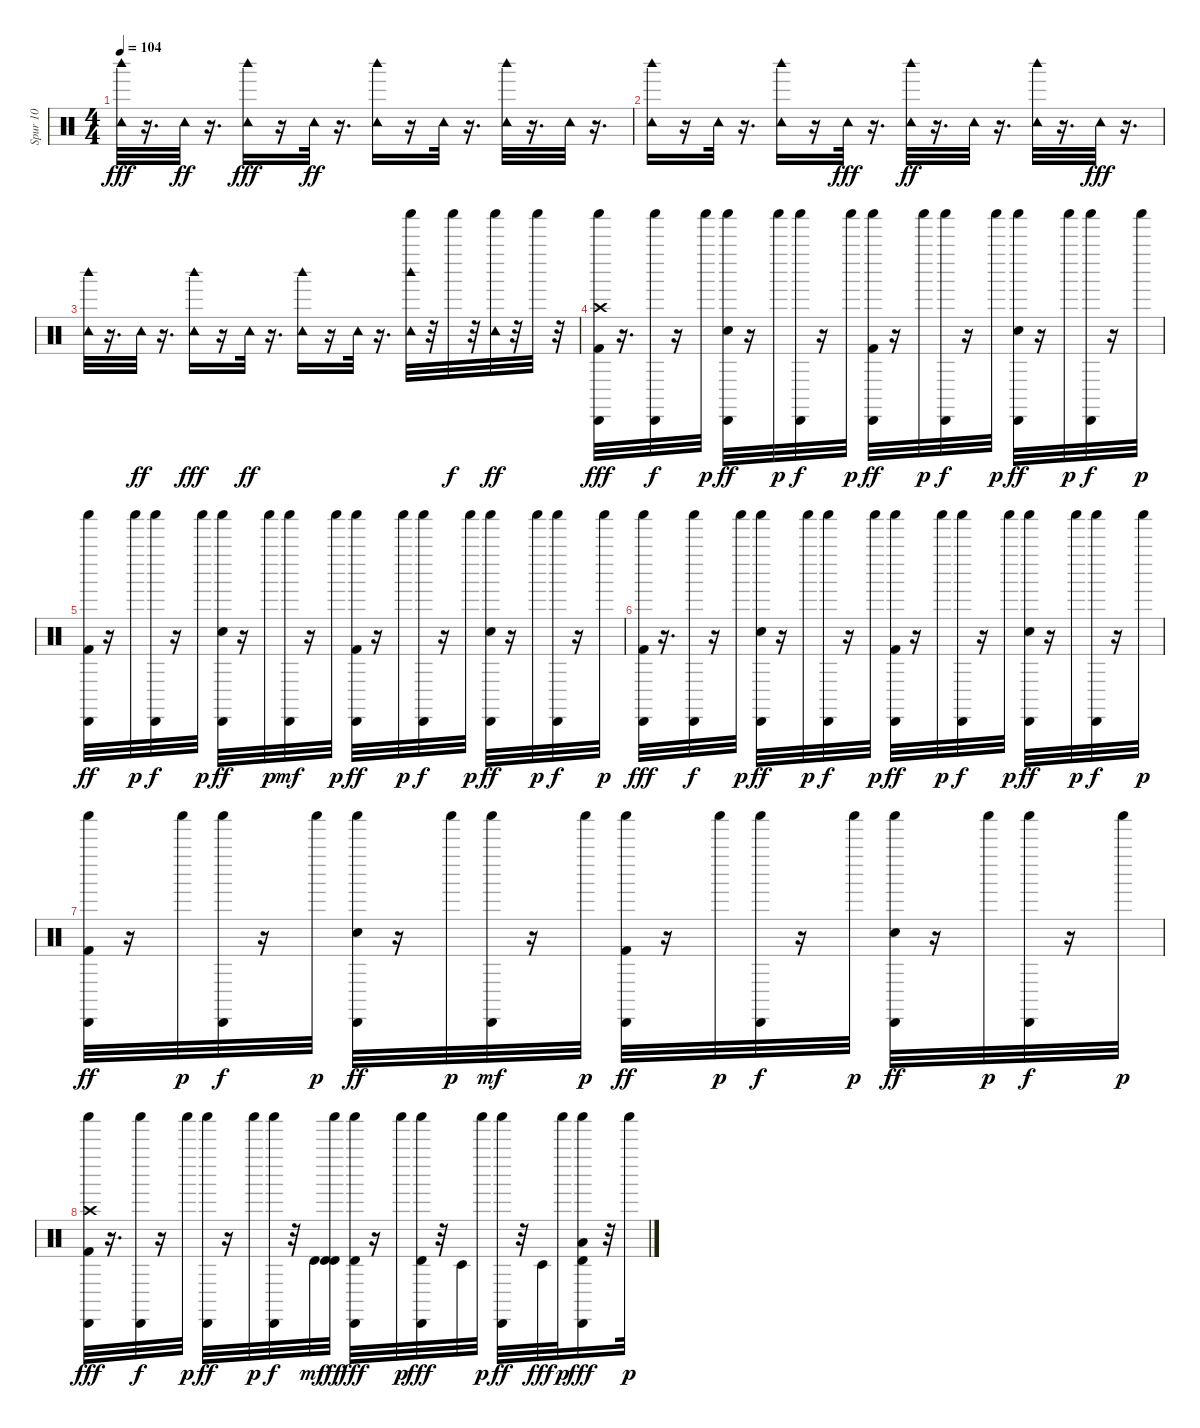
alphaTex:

\track ("Spur 10" "Spur 10") {instrument percussion}
\staff {score}
\articulation defaults
\ts (4 4)
\tempo 104
\clef neutral
\ks c
("Woodblock high (hit)" "Tambourine (hit)").32{dy fff} r.16{d} "Tambourine (hit)".32{dy ff} r.16{d} ("Tambourine (hit)" "Woodblock high (hit)").16{dy fff} r.16 "Tambourine (hit)".32{dy ff} r.16{d} ("Woodblock high (hit)" "Tambourine (hit)").16 r.16 "Tambourine (hit)".32 r.16{d} ("Woodblock high (hit)" "Tambourine (hit)").32 r.16{d} "Tambourine (hit)".32 r.16{d} |
("Tambourine (hit)" "Woodblock high (hit)").16 r.16 "Tambourine (hit)".32 r.16{d} ("Tambourine (hit)" "Woodblock high (hit)").16 r.16 "Tambourine (hit)".32{dy fff} r.16{d} ("Woodblock high (hit)" "Tambourine (hit)").32{dy ff} r.16{d} "Tambourine (hit)".32 r.16{d} ("Woodblock high (hit)" "Tambourine (hit)").32 r.16{d} "Tambourine (hit)".32{dy fff} r.16{d} |
("Woodblock high (hit)" "Tambourine (hit)").32 r.16{d} "Tambourine (hit)".32{dy ff} r.16{d} ("Tambourine (hit)" "Woodblock high (hit)").16{dy fff} r.16 "Tambourine (hit)".32{dy ff} r.16{d} ("Woodblock high (hit)" "Tambourine (hit)").16 r.16 "Tambourine (hit)".32 r.16{d} ("Shaker (hit)" "Woodblock high (hit)" "Tambourine (hit)").32 r.32 "Shaker (hit)".32{dy f} r.32 ("Tambourine (hit)" "Shaker (hit)").32{dy ff} r.32 "Shaker (hit)".32 r.32 |
("Kick (hit) 2" "Crash high (hit)" "Cabasa (hit)" "Shaker (hit)").32{dy fff} r.16{d} ("Cabasa (hit)" "Shaker (hit)").32{dy f} r.16 "Shaker (hit)".32{dy p} ("Snare (hit) 2" "Cabasa (hit)" "Shaker (hit)").32{dy ff} r.16 "Shaker (hit)".32{dy p} ("Cabasa (hit)" "Shaker (hit)").32{dy f} r.16 "Shaker (hit)".32{dy p} ("Kick (hit) 2" "Cabasa (hit)" "Shaker (hit)").32{dy ff} r.16 "Shaker (hit)".32{dy p} ("Cabasa (hit)" "Shaker (hit)").32{dy f} r.16 "Shaker (hit)".32{dy p} ("Snare (hit) 2" "Cabasa (hit)" "Shaker (hit)").32{dy ff} r.16 "Shaker (hit)".32{dy p} ("Cabasa (hit)" "Shaker (hit)").32{dy f} r.16 "Shaker (hit)".32{dy p} |
("Kick (hit) 2" "Cabasa (hit)" "Shaker (hit)").32{dy ff} r.16 "Shaker (hit)".32{dy p} ("Cabasa (hit)" "Shaker (hit)").32{dy f} r.16 "Shaker (hit)".32{dy p} ("Snare (hit) 2" "Cabasa (hit)" "Shaker (hit)").32{dy ff} r.16 "Shaker (hit)".32{dy p} ("Cabasa (hit)" "Shaker (hit)").32{dy mf} r.16 "Shaker (hit)".32{dy p} ("Kick (hit) 2" "Cabasa (hit)" "Shaker (hit)").32{dy ff} r.16 "Shaker (hit)".32{dy p} ("Cabasa (hit)" "Shaker (hit)").32{dy f} r.16 "Shaker (hit)".32{dy p} ("Snare (hit) 2" "Cabasa (hit)" "Shaker (hit)").32{dy ff} r.16 "Shaker (hit)".32{dy p} ("Cabasa (hit)" "Shaker (hit)").32{dy f} r.16 "Shaker (hit)".32{dy p} |
("Kick (hit) 2" "Cabasa (hit)" "Shaker (hit)").32{dy fff} r.16{d} ("Cabasa (hit)" "Shaker (hit)").32{dy f} r.16 "Shaker (hit)".32{dy p} ("Snare (hit) 2" "Cabasa (hit)" "Shaker (hit)").32{dy ff} r.16 "Shaker (hit)".32{dy p} ("Cabasa (hit)" "Shaker (hit)").32{dy f} r.16 "Shaker (hit)".32{dy p} ("Kick (hit) 2" "Cabasa (hit)" "Shaker (hit)").32{dy ff} r.16 "Shaker (hit)".32{dy p} ("Cabasa (hit)" "Shaker (hit)").32{dy f} r.16 "Shaker (hit)".32{dy p} ("Snare (hit) 2" "Cabasa (hit)" "Shaker (hit)").32{dy ff} r.16 "Shaker (hit)".32{dy p} ("Cabasa (hit)" "Shaker (hit)").32{dy f} r.16 "Shaker (hit)".32{dy p} |
("Kick (hit) 2" "Cabasa (hit)" "Shaker (hit)").32{dy ff} r.16 "Shaker (hit)".32{dy p} ("Cabasa (hit)" "Shaker (hit)").32{dy f} r.16 "Shaker (hit)".32{dy p} ("Snare (hit) 2" "Cabasa (hit)" "Shaker (hit)").32{dy ff} r.16 "Shaker (hit)".32{dy p} ("Cabasa (hit)" "Shaker (hit)").32{dy mf} r.16 "Shaker (hit)".32{dy p} ("Kick (hit) 2" "Cabasa (hit)" "Shaker (hit)").32{dy ff} r.16 "Shaker (hit)".32{dy p} ("Cabasa (hit)" "Shaker (hit)").32{dy f} r.16 "Shaker (hit)".32{dy p} ("Snare (hit) 2" "Cabasa (hit)" "Shaker (hit)").32{dy ff} r.16 "Shaker (hit)".32{dy p} ("Cabasa (hit)" "Shaker (hit)").32{dy f} r.16 "Shaker (hit)".32{dy p} |
("Kick (hit) 2" "Crash high (hit)" "Cabasa (hit)" "Shaker (hit)").32{dy fff} r.16{d} ("Cabasa (hit)" "Shaker (hit)").32{dy f} r.16 "Shaker (hit)".32{dy p} ("Cabasa (hit)" "Shaker (hit)").32{dy ff} r.16 "Shaker (hit)".32{dy p} ("Cabasa (hit)" "Shaker (hit)").32{dy f} r.32 "Timbale high (hit)".32{dy mf} ("Shaker (hit)" "Timbale high (hit)" "Timbale high (hit)").32{dy ff} ("Cabasa (hit)" "Shaker (hit)" "Timbale high (hit)").32{dy fff} r.16 "Shaker (hit)".32{dy p} ("Cabasa (hit)" "Shaker (hit)" "Timbale high (hit)").32{dy fff} r.32 "Timbale low (hit)".32 "Shaker (hit)".32{dy p} ("Cabasa (hit)" "Shaker (hit)").32{dy ff} r.32 "Timbale low (hit)".32{dy fff} "Shaker (hit)".32{dy p} ("Timbale high (hit)" "Cabasa (hit)" "Shaker (hit)" "Low Tom (hit)").16{dy fff} r.32 "Shaker (hit)".32{dy p}
